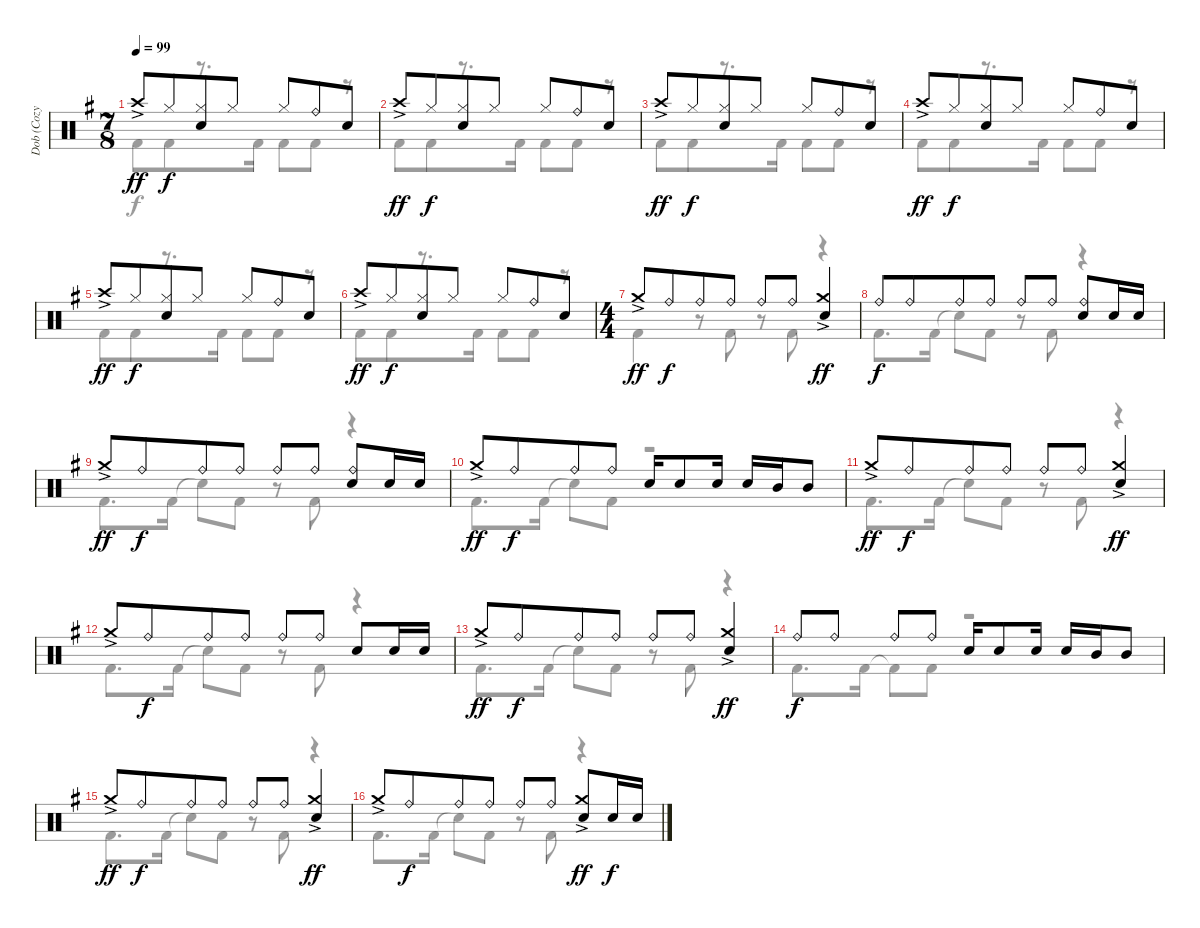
\track ("Dob (Cozy Powell)" "Dob (Cozy ") {instrument percussion}
\staff {score}
\articulation defaults
\voice
\ts (7 8)
\tempo 99
\clef neutral
\ks g "Crash high (hit)"{ac}.8{dy ff} "Hi-Hat (closed)".8{dy f}
("Hi-Hat (closed)" "Electric Snare (hit)").8{beam merge} "Hi-Hat (closed)".8{beam split} "Hi-Hat (closed)".8{beam merge} "Ride (bell)".8 "Electric Snare (hit)".8 |
"Crash high (hit)"{ac}.8{dy ff} "Hi-Hat (closed)".8{dy f} ("Hi-Hat (closed)" "Electric Snare (hit)").8{beam merge} "Hi-Hat (closed)".8{beam split} "Hi-Hat (closed)".8{beam merge} "Ride (bell)".8 "Electric Snare (hit)".8 |
"Crash high (hit)"{ac}.8{dy ff} "Hi-Hat (closed)".8{dy f} ("Hi-Hat (closed)" "Electric Snare (hit)").8{beam merge} "Hi-Hat (closed)".8{beam split} "Hi-Hat (closed)".8{beam merge} "Ride (bell)".8 "Electric Snare (hit)".8 |
"Crash high (hit)"{ac}.8{dy ff} "Hi-Hat (closed)".8{dy f} ("Hi-Hat (closed)" "Electric Snare (hit)").8{beam merge} "Hi-Hat (closed)".8{beam split} "Hi-Hat (closed)".8{beam merge} "Ride (bell)".8 "Electric Snare (hit)".8 |
"Crash high (hit)"{ac}.8{dy ff} "Hi-Hat (closed)".8{dy f} ("Hi-Hat (closed)" "Electric Snare (hit)").8{beam merge} "Hi-Hat (closed)".8{beam split} "Hi-Hat (closed)".8{beam merge} "Ride (bell)".8 "Electric Snare (hit)".8 |
"Crash high (hit)"{ac}.8{dy ff} "Hi-Hat (closed)".8{dy f} ("Hi-Hat (closed)" "Electric Snare (hit)").8{beam merge} "Hi-Hat (closed)".8{beam split} "Hi-Hat (closed)".8{beam merge} "Ride (bell)".8 "Electric Snare (hit)".8 |
\ts (4 4)
"Crash medium (hit)"{ac}.8{dy ff} "Ride (bell)".8{dy f beam merge} "Ride (bell)".8 "Ride (bell)".8 "Ride (bell)".8 "Ride (bell)".8 ("Crash medium (hit)"{ac} "Electric Snare (hit)").4{dy ff} |
"Ride (bell)".8{dy f} "Ride (bell)".8{beam merge} "Ride (bell)".8{beam merge} "Ride (bell)".8{beam split} "Ride (bell)".8{beam merge} "Ride (bell)".8{beam split} ("Ride (bell)" "Electric Snare (hit)").8{beam merge} "Electric Snare (hit)".16 "Electric Snare (hit)".16 |
"Crash medium (hit)"{ac}.8{dy ff} "Ride (bell)".8{dy f beam merge} "Ride (bell)".8{beam merge} "Ride (bell)".8{beam split} "Ride (bell)".8{beam merge} "Ride (bell)".8{beam split} ("Ride (bell)" "Electric Snare (hit)").8{beam merge} "Electric Snare (hit)".16 "Electric Snare (hit)".16 |
"Crash medium (hit)"{ac}.8{dy ff} "Ride (bell)".8{dy f beam merge} "Ride (bell)".8{beam merge} "Ride (bell)".8 "Electric Snare (hit)".16 "Electric Snare (hit)".8 "Electric Snare (hit)".16 "Electric Snare (hit)".16 "Mid Tom (hit)".16 "Mid Tom (hit)".8 |
"Crash medium (hit)"{ac}.8{dy ff} "Ride (bell)".8{dy f beam merge} "Ride (bell)".8{beam merge} "Ride (bell)".8{beam split} "Ride (bell)".8{beam merge} "Ride (bell)".8 ("Crash medium (hit)"{ac} "Electric Snare (hit)").4{dy ff} |
"Crash medium (hit)"{ac}.8 "Ride (bell)".8{dy f beam merge} "Ride (bell)".8{beam merge} "Ride (bell)".8{beam split} "Ride (bell)".8{beam merge} "Ride (bell)".8{beam split} "Electric Snare (hit)".8{beam merge} "Electric Snare (hit)".16 "Electric Snare (hit)".16 |
"Crash medium (hit)"{ac}.8{dy ff} "Ride (bell)".8{dy f beam merge} "Ride (bell)".8{beam merge} "Ride (bell)".8{beam split} "Ride (bell)".8{beam merge} "Ride (bell)".8 ("Crash medium (hit)"{ac} "Electric Snare (hit)").4{dy ff} |
"Ride (bell)".8{dy f} "Ride (bell)".8 "Ride (bell)".8{beam merge} "Ride (bell)".8 "Electric Snare (hit)".16 "Electric Snare (hit)".8 "Electric Snare (hit)".16 "Electric Snare (hit)".16 "Mid Tom (hit)".16 "Mid Tom (hit)".8 |
"Crash medium (hit)"{ac}.8{dy ff} "Ride (bell)".8{dy f beam merge} "Ride (bell)".8{beam merge} "Ride (bell)".8{beam split} "Ride (bell)".8{beam merge} "Ride (bell)".8 ("Crash medium (hit)"{ac} "Electric Snare (hit)").4{dy ff} |
"Crash medium (hit)"{ac}.8 "Ride (bell)".8{dy f beam merge} "Ride (bell)".8{beam merge} "Ride (bell)".8{beam split} "Ride (bell)".8{beam merge} "Ride (bell)".8{beam split} ("Crash medium (hit)"{ac} "Electric Snare (hit)").8{dy ff beam merge} "Electric Snare (hit)".16{dy f beam merge} "Electric Snare (hit)".16
\voice
\clef neutral
\ottava regular
\simile none
\ks g "Kick (hit) 2".8{dy f beam merge} "Kick (hit) 2".8
r.8{d} "Kick (hit) 2".16 "Kick (hit) 2".8{beam merge} "Kick (hit) 2".8 r.8 |
"Kick (hit) 2".8{beam merge} "Kick (hit) 2".8 r.8{d} "Kick (hit) 2".16 "Kick (hit) 2".8{beam merge} "Kick (hit) 2".8 r.8 |
"Kick (hit) 2".8{beam merge} "Kick (hit) 2".8 r.8{d} "Kick (hit) 2".16 "Kick (hit) 2".8{beam merge} "Kick (hit) 2".8 r.8 |
"Kick (hit) 2".8{beam merge} "Kick (hit) 2".8 r.8{d} "Kick (hit) 2".16 "Kick (hit) 2".8{beam merge} "Kick (hit) 2".8 r.8 |
"Kick (hit) 2".8{beam merge} "Kick (hit) 2".8 r.8{d} "Kick (hit) 2".16 "Kick (hit) 2".8{beam merge} "Kick (hit) 2".8 r.8 |
"Kick (hit) 2".8{beam merge} "Kick (hit) 2".8 r.8{d} "Kick (hit) 2".16 "Kick (hit) 2".8{beam merge} "Kick (hit) 2".8 r.8 |
"Kick (hit) 2".4 r.8 "Kick (hit) 2".8 r.8 "Kick (hit) 2".8 r.4 |
"Kick (hit) 2".8{d} "Kick (hit) 2".16 "Snare (hit)"{t}.8 "Kick (hit) 2".8 r.8 "Kick (hit) 2".8 r.4 |
"Kick (hit) 2".8{d} "Kick (hit) 2".16 "Snare (hit)"{t}.8 "Kick (hit) 2".8 r.8 "Kick (hit) 2".8 r.4 |
"Kick (hit) 2".8{d} "Kick (hit) 2".16 "Snare (hit)"{t}.8 "Kick (hit) 2".8 r.2 |
"Kick (hit) 2".8{d} "Kick (hit) 2".16 "Snare (hit)"{t}.8 "Kick (hit) 2".8 r.8 "Kick (hit) 2".8 r.4 |
"Kick (hit) 2".8{d} "Kick (hit) 2".16 "Snare (hit)"{t}.8 "Kick (hit) 2".8 r.8 "Kick (hit) 2".8 r.4 |
"Kick (hit) 2".8{d} "Kick (hit) 2".16 "Snare (hit)"{t}.8 "Kick (hit) 2".8 r.8 "Kick (hit) 2".8 r.4 |
"Kick (hit) 2".8{d} "Kick (hit) 2".16 "Kick (hit) 2"{t}.8 "Kick (hit) 2".8 r.2 |
"Kick (hit) 2".8{d} "Kick (hit) 2".16 "Snare (hit)"{t}.8 "Kick (hit) 2".8 r.8 "Kick (hit) 2".8 r.4 |
"Kick (hit) 2".8{d} "Kick (hit) 2".16 "Snare (hit)"{t}.8 "Kick (hit) 2".8 r.8 "Kick (hit) 2".8 r.4
